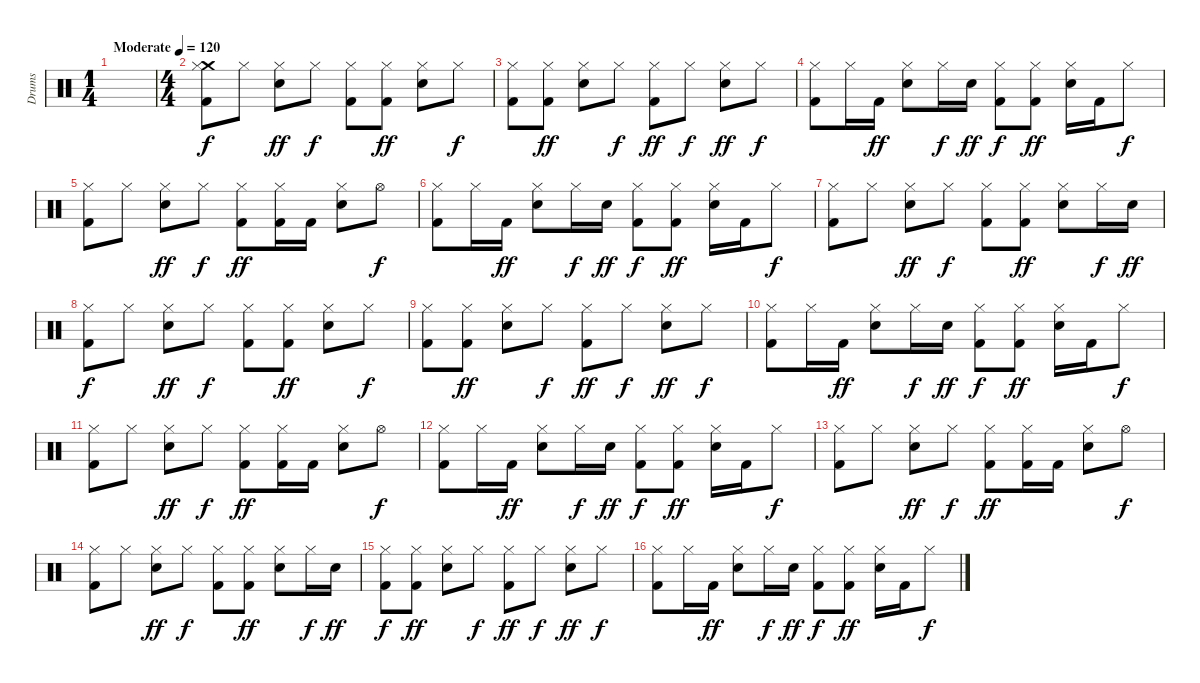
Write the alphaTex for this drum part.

\track ("Drums" "Drums") {instrument percussion}
\staff {score}
\articulation defaults
\ts (1 4)
\tempo (120 "Moderate")
\clef neutral
\ks c
|
\ts (4 4)
("Crash medium (hit)" "Hi-Hat (closed)" "Kick (hit) 2").8 "Hi-Hat (closed)".8 ("Hi-Hat (closed)" "Electric Snare (hit)").8{dy ff} "Hi-Hat (closed)".8{dy f} ("Hi-Hat (closed)" "Kick (hit) 2").8 ("Hi-Hat (closed)" "Kick (hit) 2").8{dy ff} ("Hi-Hat (closed)" "Electric Snare (hit)").8 "Hi-Hat (closed)".8{dy f} |
("Hi-Hat (closed)" "Kick (hit) 2").8 ("Hi-Hat (closed)" "Kick (hit) 2").8{dy ff} ("Hi-Hat (closed)" "Electric Snare (hit)").8 "Hi-Hat (closed)".8{dy f} ("Hi-Hat (closed)" "Kick (hit) 2").8{dy ff} "Hi-Hat (closed)".8{dy f} ("Hi-Hat (closed)" "Electric Snare (hit)").8{dy ff} "Hi-Hat (closed)".8{dy f} |
("Hi-Hat (closed)" "Kick (hit) 2").8 "Hi-Hat (closed)".16 "Kick (hit) 2".16{dy ff} ("Hi-Hat (closed)" "Electric Snare (hit)").8 "Hi-Hat (closed)".16{dy f} "Electric Snare (hit)".16{dy ff} ("Hi-Hat (closed)" "Kick (hit) 2").8{dy f} ("Hi-Hat (closed)" "Kick (hit) 2").8{dy ff} ("Hi-Hat (closed)" "Electric Snare (hit)").16 "Kick (hit) 2".16 "Hi-Hat (closed)".8{dy f} |
("Hi-Hat (closed)" "Kick (hit) 2").8 "Hi-Hat (closed)".8 ("Hi-Hat (closed)" "Electric Snare (hit)").8{dy ff} "Hi-Hat (closed)".8{dy f} ("Hi-Hat (closed)" "Kick (hit) 2").8{dy ff} ("Hi-Hat (closed)" "Kick (hit) 2").16 "Kick (hit) 2".16 ("Hi-Hat (closed)" "Electric Snare (hit)").8 "Hi-Hat (open)".8{dy f} |
("Hi-Hat (closed)" "Kick (hit) 2").8 "Hi-Hat (closed)".16 "Kick (hit) 2".16{dy ff} ("Hi-Hat (closed)" "Electric Snare (hit)").8 "Hi-Hat (closed)".16{dy f} "Electric Snare (hit)".16{dy ff} ("Hi-Hat (closed)" "Kick (hit) 2").8{dy f} ("Hi-Hat (closed)" "Kick (hit) 2").8{dy ff} ("Hi-Hat (closed)" "Electric Snare (hit)").16 "Kick (hit) 2".16 "Hi-Hat (closed)".8{dy f} |
("Hi-Hat (closed)" "Kick (hit) 2").8 "Hi-Hat (closed)".8 ("Hi-Hat (closed)" "Electric Snare (hit)").8{dy ff} "Hi-Hat (closed)".8{dy f} ("Hi-Hat (closed)" "Kick (hit) 2").8 ("Hi-Hat (closed)" "Kick (hit) 2").8{dy ff} ("Hi-Hat (closed)" "Electric Snare (hit)").8 "Hi-Hat (closed)".16{dy f} "Electric Snare (hit)".16{dy ff} |
("Hi-Hat (closed)" "Kick (hit) 2").8{dy f} "Hi-Hat (closed)".8 ("Hi-Hat (closed)" "Electric Snare (hit)").8{dy ff} "Hi-Hat (closed)".8{dy f} ("Hi-Hat (closed)" "Kick (hit) 2").8 ("Hi-Hat (closed)" "Kick (hit) 2").8{dy ff} ("Hi-Hat (closed)" "Electric Snare (hit)").8 "Hi-Hat (closed)".8{dy f} |
("Hi-Hat (closed)" "Kick (hit) 2").8 ("Hi-Hat (closed)" "Kick (hit) 2").8{dy ff} ("Hi-Hat (closed)" "Electric Snare (hit)").8 "Hi-Hat (closed)".8{dy f} ("Hi-Hat (closed)" "Kick (hit) 2").8{dy ff} "Hi-Hat (closed)".8{dy f} ("Hi-Hat (closed)" "Electric Snare (hit)").8{dy ff} "Hi-Hat (closed)".8{dy f} |
("Hi-Hat (closed)" "Kick (hit) 2").8 "Hi-Hat (closed)".16 "Kick (hit) 2".16{dy ff} ("Hi-Hat (closed)" "Electric Snare (hit)").8 "Hi-Hat (closed)".16{dy f} "Electric Snare (hit)".16{dy ff} ("Hi-Hat (closed)" "Kick (hit) 2").8{dy f} ("Hi-Hat (closed)" "Kick (hit) 2").8{dy ff} ("Hi-Hat (closed)" "Electric Snare (hit)").16 "Kick (hit) 2".16 "Hi-Hat (closed)".8{dy f} |
("Hi-Hat (closed)" "Kick (hit) 2").8 "Hi-Hat (closed)".8 ("Hi-Hat (closed)" "Electric Snare (hit)").8{dy ff} "Hi-Hat (closed)".8{dy f} ("Hi-Hat (closed)" "Kick (hit) 2").8{dy ff} ("Hi-Hat (closed)" "Kick (hit) 2").16 "Kick (hit) 2".16 ("Hi-Hat (closed)" "Electric Snare (hit)").8 "Hi-Hat (open)".8{dy f} |
("Hi-Hat (closed)" "Kick (hit) 2").8 "Hi-Hat (closed)".16 "Kick (hit) 2".16{dy ff} ("Hi-Hat (closed)" "Electric Snare (hit)").8 "Hi-Hat (closed)".16{dy f} "Electric Snare (hit)".16{dy ff} ("Hi-Hat (closed)" "Kick (hit) 2").8{dy f} ("Hi-Hat (closed)" "Kick (hit) 2").8{dy ff} ("Hi-Hat (closed)" "Electric Snare (hit)").16 "Kick (hit) 2".16 "Hi-Hat (closed)".8{dy f} |
("Hi-Hat (closed)" "Kick (hit) 2").8 "Hi-Hat (closed)".8 ("Hi-Hat (closed)" "Electric Snare (hit)").8{dy ff} "Hi-Hat (closed)".8{dy f} ("Hi-Hat (closed)" "Kick (hit) 2").8{dy ff} ("Hi-Hat (closed)" "Kick (hit) 2").16 "Kick (hit) 2".16 ("Hi-Hat (closed)" "Electric Snare (hit)").8 "Hi-Hat (open)".8{dy f} |
("Hi-Hat (closed)" "Kick (hit) 2").8 "Hi-Hat (closed)".8 ("Hi-Hat (closed)" "Electric Snare (hit)").8{dy ff} "Hi-Hat (closed)".8{dy f} ("Hi-Hat (closed)" "Kick (hit) 2").8 ("Hi-Hat (closed)" "Kick (hit) 2").8{dy ff} ("Hi-Hat (closed)" "Electric Snare (hit)").8 "Hi-Hat (closed)".16{dy f} "Electric Snare (hit)".16{dy ff} |
("Hi-Hat (closed)" "Kick (hit) 2").8{dy f} ("Hi-Hat (closed)" "Kick (hit) 2").8{dy ff} ("Hi-Hat (closed)" "Electric Snare (hit)").8 "Hi-Hat (closed)".8{dy f} ("Hi-Hat (closed)" "Kick (hit) 2").8{dy ff} "Hi-Hat (closed)".8{dy f} ("Hi-Hat (closed)" "Electric Snare (hit)").8{dy ff} "Hi-Hat (closed)".8{dy f} |
("Hi-Hat (closed)" "Kick (hit) 2").8 "Hi-Hat (closed)".16 "Kick (hit) 2".16{dy ff} ("Hi-Hat (closed)" "Electric Snare (hit)").8 "Hi-Hat (closed)".16{dy f} "Electric Snare (hit)".16{dy ff} ("Hi-Hat (closed)" "Kick (hit) 2").8{dy f} ("Hi-Hat (closed)" "Kick (hit) 2").8{dy ff} ("Hi-Hat (closed)" "Electric Snare (hit)").16 "Kick (hit) 2".16 "Hi-Hat (closed)".8{dy f}
